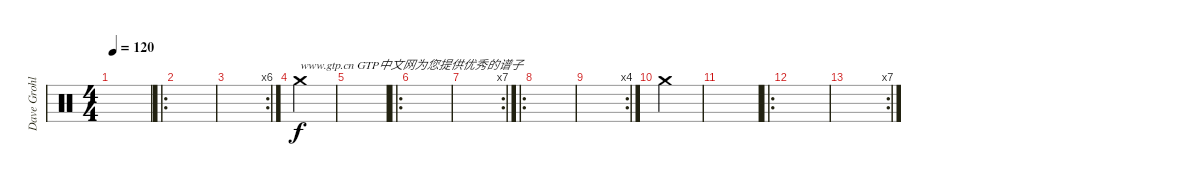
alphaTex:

\track ("Dave Grohl" "Dave Grohl") {instrument percussion}
\staff {score}
\articulation defaults
\ts (4 4)
\tempo 120
\clef neutral
\ks c
|
\ro
|
\rc 6
|
"Crash medium (hit)".4{txt "www.gtp.cn GTP中文网为您提供优秀的谱子"} |
|
\ro
|
\rc 7
|
\ro
|
\rc 4
|
"Crash medium (hit)".4 |
|
\ro
|
\rc 7
